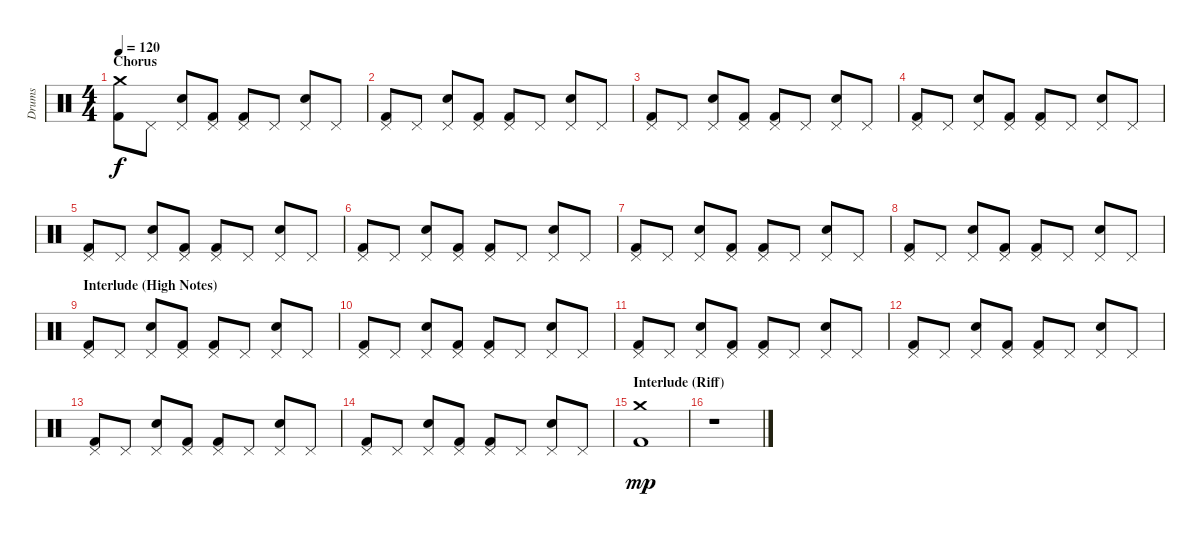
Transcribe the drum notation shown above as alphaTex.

\track ("Drums" "Drums") {instrument percussion}
\staff {score}
\articulation defaults
\ts (4 4)
\section ("" "Chorus")
\tempo 120
\clef neutral
\ks c
("Crash medium (hit)" "Kick (hit) 2").8{dy f} "Pedal Hi-Hat (hit)".8 ("Pedal Hi-Hat (hit)" "Electric Snare (hit)").8 ("Pedal Hi-Hat (hit)" "Kick (hit) 2").8 ("Pedal Hi-Hat (hit)" "Kick (hit) 2").8 "Pedal Hi-Hat (hit)".8 ("Pedal Hi-Hat (hit)" "Electric Snare (hit)").8 "Pedal Hi-Hat (hit)".8 |
("Pedal Hi-Hat (hit)" "Kick (hit) 2").8 "Pedal Hi-Hat (hit)".8 ("Pedal Hi-Hat (hit)" "Electric Snare (hit)").8 ("Pedal Hi-Hat (hit)" "Kick (hit) 2").8 ("Pedal Hi-Hat (hit)" "Kick (hit) 2").8 "Pedal Hi-Hat (hit)".8 ("Pedal Hi-Hat (hit)" "Electric Snare (hit)").8 "Pedal Hi-Hat (hit)".8 |
("Pedal Hi-Hat (hit)" "Kick (hit) 2").8 "Pedal Hi-Hat (hit)".8 ("Pedal Hi-Hat (hit)" "Electric Snare (hit)").8 ("Pedal Hi-Hat (hit)" "Kick (hit) 2").8 ("Pedal Hi-Hat (hit)" "Kick (hit) 2").8 "Pedal Hi-Hat (hit)".8 ("Pedal Hi-Hat (hit)" "Electric Snare (hit)").8 "Pedal Hi-Hat (hit)".8 |
("Pedal Hi-Hat (hit)" "Kick (hit) 2").8 "Pedal Hi-Hat (hit)".8 ("Pedal Hi-Hat (hit)" "Electric Snare (hit)").8 ("Pedal Hi-Hat (hit)" "Kick (hit) 2").8 ("Pedal Hi-Hat (hit)" "Kick (hit) 2").8 "Pedal Hi-Hat (hit)".8 ("Pedal Hi-Hat (hit)" "Electric Snare (hit)").8 "Pedal Hi-Hat (hit)".8 |
("Pedal Hi-Hat (hit)" "Kick (hit) 2").8 "Pedal Hi-Hat (hit)".8 ("Pedal Hi-Hat (hit)" "Electric Snare (hit)").8 ("Pedal Hi-Hat (hit)" "Kick (hit) 2").8 ("Pedal Hi-Hat (hit)" "Kick (hit) 2").8 "Pedal Hi-Hat (hit)".8 ("Pedal Hi-Hat (hit)" "Electric Snare (hit)").8 "Pedal Hi-Hat (hit)".8 |
("Pedal Hi-Hat (hit)" "Kick (hit) 2").8 "Pedal Hi-Hat (hit)".8 ("Pedal Hi-Hat (hit)" "Electric Snare (hit)").8 ("Pedal Hi-Hat (hit)" "Kick (hit) 2").8 ("Pedal Hi-Hat (hit)" "Kick (hit) 2").8 "Pedal Hi-Hat (hit)".8 ("Pedal Hi-Hat (hit)" "Electric Snare (hit)").8 "Pedal Hi-Hat (hit)".8 |
("Pedal Hi-Hat (hit)" "Kick (hit) 2").8 "Pedal Hi-Hat (hit)".8 ("Pedal Hi-Hat (hit)" "Electric Snare (hit)").8 ("Pedal Hi-Hat (hit)" "Kick (hit) 2").8 ("Pedal Hi-Hat (hit)" "Kick (hit) 2").8 "Pedal Hi-Hat (hit)".8 ("Pedal Hi-Hat (hit)" "Electric Snare (hit)").8 "Pedal Hi-Hat (hit)".8 |
("Pedal Hi-Hat (hit)" "Kick (hit) 2").8 "Pedal Hi-Hat (hit)".8 ("Pedal Hi-Hat (hit)" "Electric Snare (hit)").8 ("Pedal Hi-Hat (hit)" "Kick (hit) 2").8 ("Pedal Hi-Hat (hit)" "Kick (hit) 2").8 "Pedal Hi-Hat (hit)".8 ("Pedal Hi-Hat (hit)" "Electric Snare (hit)").8 "Pedal Hi-Hat (hit)".8 |
\section ("" "Interlude (High Notes)")
("Pedal Hi-Hat (hit)" "Kick (hit) 2").8 "Pedal Hi-Hat (hit)".8 ("Pedal Hi-Hat (hit)" "Electric Snare (hit)").8 ("Pedal Hi-Hat (hit)" "Kick (hit) 2").8 ("Pedal Hi-Hat (hit)" "Kick (hit) 2").8 "Pedal Hi-Hat (hit)".8 ("Pedal Hi-Hat (hit)" "Electric Snare (hit)").8 "Pedal Hi-Hat (hit)".8 |
("Pedal Hi-Hat (hit)" "Kick (hit) 2").8 "Pedal Hi-Hat (hit)".8 ("Pedal Hi-Hat (hit)" "Electric Snare (hit)").8 ("Pedal Hi-Hat (hit)" "Kick (hit) 2").8 ("Pedal Hi-Hat (hit)" "Kick (hit) 2").8 "Pedal Hi-Hat (hit)".8 ("Pedal Hi-Hat (hit)" "Electric Snare (hit)").8 "Pedal Hi-Hat (hit)".8 |
("Pedal Hi-Hat (hit)" "Kick (hit) 2").8 "Pedal Hi-Hat (hit)".8 ("Pedal Hi-Hat (hit)" "Electric Snare (hit)").8 ("Pedal Hi-Hat (hit)" "Kick (hit) 2").8 ("Pedal Hi-Hat (hit)" "Kick (hit) 2").8 "Pedal Hi-Hat (hit)".8 ("Pedal Hi-Hat (hit)" "Electric Snare (hit)").8 "Pedal Hi-Hat (hit)".8 |
("Pedal Hi-Hat (hit)" "Kick (hit) 2").8 "Pedal Hi-Hat (hit)".8 ("Pedal Hi-Hat (hit)" "Electric Snare (hit)").8 ("Pedal Hi-Hat (hit)" "Kick (hit) 2").8 ("Pedal Hi-Hat (hit)" "Kick (hit) 2").8 "Pedal Hi-Hat (hit)".8 ("Pedal Hi-Hat (hit)" "Electric Snare (hit)").8 "Pedal Hi-Hat (hit)".8 |
("Pedal Hi-Hat (hit)" "Kick (hit) 2").8 "Pedal Hi-Hat (hit)".8 ("Pedal Hi-Hat (hit)" "Electric Snare (hit)").8 ("Pedal Hi-Hat (hit)" "Kick (hit) 2").8 ("Pedal Hi-Hat (hit)" "Kick (hit) 2").8 "Pedal Hi-Hat (hit)".8 ("Pedal Hi-Hat (hit)" "Electric Snare (hit)").8 "Pedal Hi-Hat (hit)".8 |
("Pedal Hi-Hat (hit)" "Kick (hit) 2").8 "Pedal Hi-Hat (hit)".8 ("Pedal Hi-Hat (hit)" "Electric Snare (hit)").8 ("Pedal Hi-Hat (hit)" "Kick (hit) 2").8 ("Pedal Hi-Hat (hit)" "Kick (hit) 2").8 "Pedal Hi-Hat (hit)".8 ("Pedal Hi-Hat (hit)" "Electric Snare (hit)").8 "Pedal Hi-Hat (hit)".8 |
\section ("" "Interlude (Riff)")
("Crash medium (hit)" "Kick (hit) 2").1{dy mp} |
r.1
